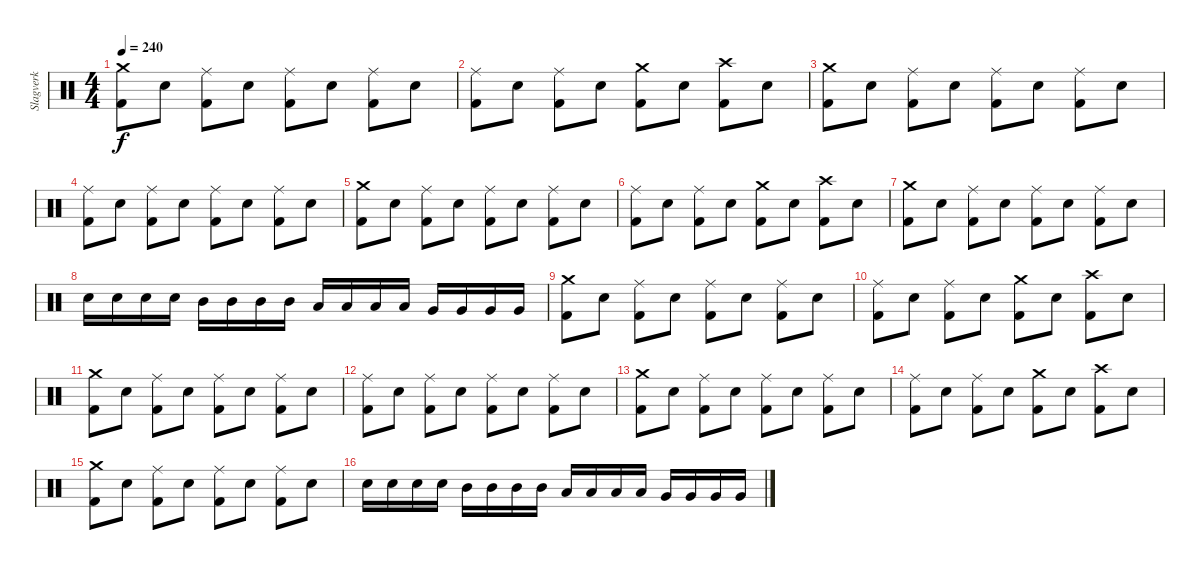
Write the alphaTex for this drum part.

\track ("Slagverk" "Slagverk") {instrument percussion}
\staff {score}
\articulation defaults
\ts (4 4)
\tempo 240
\clef neutral
\ks c
("Crash medium (hit)" "Kick (hit) 2").8{dy f} "Electric Snare (hit)".8 ("Ride (middle)" "Kick (hit) 2").8 "Electric Snare (hit)".8 ("Ride (middle)" "Kick (hit) 2").8 "Electric Snare (hit)".8 ("Ride (middle)" "Kick (hit) 2").8 "Electric Snare (hit)".8 |
("Ride (middle)" "Kick (hit) 2").8 "Electric Snare (hit)".8 ("Ride (middle)" "Kick (hit) 2").8 "Electric Snare (hit)".8 ("Crash medium (hit)" "Kick (hit) 2").8 "Electric Snare (hit)".8 ("Crash high (hit)" "Kick (hit) 2").8 "Electric Snare (hit)".8 |
("Crash medium (hit)" "Kick (hit) 2").8 "Electric Snare (hit)".8 ("Ride (middle)" "Kick (hit) 2").8 "Electric Snare (hit)".8 ("Ride (middle)" "Kick (hit) 2").8 "Electric Snare (hit)".8 ("Ride (middle)" "Kick (hit) 2").8 "Electric Snare (hit)".8 |
("Ride (middle)" "Kick (hit) 2").8 "Electric Snare (hit)".8 ("Ride (middle)" "Kick (hit) 2").8 "Electric Snare (hit)".8 ("Ride (middle)" "Kick (hit) 2").8 "Electric Snare (hit)".8 ("Ride (middle)" "Kick (hit) 2").8 "Electric Snare (hit)".8 |
("Crash medium (hit)" "Kick (hit) 2").8 "Electric Snare (hit)".8 ("Ride (middle)" "Kick (hit) 2").8 "Electric Snare (hit)".8 ("Ride (middle)" "Kick (hit) 2").8 "Electric Snare (hit)".8 ("Ride (middle)" "Kick (hit) 2").8 "Electric Snare (hit)".8 |
("Ride (middle)" "Kick (hit) 2").8 "Electric Snare (hit)".8 ("Ride (middle)" "Kick (hit) 2").8 "Electric Snare (hit)".8 ("Crash medium (hit)" "Kick (hit) 2").8 "Electric Snare (hit)".8 ("Crash high (hit)" "Kick (hit) 2").8 "Electric Snare (hit)".8 |
("Crash medium (hit)" "Kick (hit) 2").8 "Electric Snare (hit)".8 ("Ride (middle)" "Kick (hit) 2").8 "Electric Snare (hit)".8 ("Ride (middle)" "Kick (hit) 2").8 "Electric Snare (hit)".8 ("Ride (middle)" "Kick (hit) 2").8 "Electric Snare (hit)".8 |
"Electric Snare (hit)".16 "Electric Snare (hit)".16 "Electric Snare (hit)".16 "Electric Snare (hit)".16 "Mid Tom (hit)".16 "Mid Tom (hit)".16 "Mid Tom (hit)".16 "Mid Tom (hit)".16 "Low Tom (hit)".16 "Low Tom (hit)".16 "Low Tom (hit)".16 "Low Tom (hit)".16 "Very Low Tom (hit)".16 "Very Low Tom (hit)".16 "Very Low Tom (hit)".16 "Very Low Tom (hit)".16 |
("Crash medium (hit)" "Kick (hit) 2").8 "Electric Snare (hit)".8 ("Ride (middle)" "Kick (hit) 2").8 "Electric Snare (hit)".8 ("Ride (middle)" "Kick (hit) 2").8 "Electric Snare (hit)".8 ("Ride (middle)" "Kick (hit) 2").8 "Electric Snare (hit)".8 |
("Ride (middle)" "Kick (hit) 2").8 "Electric Snare (hit)".8 ("Ride (middle)" "Kick (hit) 2").8 "Electric Snare (hit)".8 ("Crash medium (hit)" "Kick (hit) 2").8 "Electric Snare (hit)".8 ("Crash high (hit)" "Kick (hit) 2").8 "Electric Snare (hit)".8 |
("Crash medium (hit)" "Kick (hit) 2").8 "Electric Snare (hit)".8 ("Ride (middle)" "Kick (hit) 2").8 "Electric Snare (hit)".8 ("Ride (middle)" "Kick (hit) 2").8 "Electric Snare (hit)".8 ("Ride (middle)" "Kick (hit) 2").8 "Electric Snare (hit)".8 |
("Ride (middle)" "Kick (hit) 2").8 "Electric Snare (hit)".8 ("Ride (middle)" "Kick (hit) 2").8 "Electric Snare (hit)".8 ("Ride (middle)" "Kick (hit) 2").8 "Electric Snare (hit)".8 ("Ride (middle)" "Kick (hit) 2").8 "Electric Snare (hit)".8 |
("Crash medium (hit)" "Kick (hit) 2").8 "Electric Snare (hit)".8 ("Ride (middle)" "Kick (hit) 2").8 "Electric Snare (hit)".8 ("Ride (middle)" "Kick (hit) 2").8 "Electric Snare (hit)".8 ("Ride (middle)" "Kick (hit) 2").8 "Electric Snare (hit)".8 |
("Ride (middle)" "Kick (hit) 2").8 "Electric Snare (hit)".8 ("Ride (middle)" "Kick (hit) 2").8 "Electric Snare (hit)".8 ("Crash medium (hit)" "Kick (hit) 2").8 "Electric Snare (hit)".8 ("Crash high (hit)" "Kick (hit) 2").8 "Electric Snare (hit)".8 |
("Crash medium (hit)" "Kick (hit) 2").8 "Electric Snare (hit)".8 ("Ride (middle)" "Kick (hit) 2").8 "Electric Snare (hit)".8 ("Ride (middle)" "Kick (hit) 2").8 "Electric Snare (hit)".8 ("Ride (middle)" "Kick (hit) 2").8 "Electric Snare (hit)".8 |
"Electric Snare (hit)".16 "Electric Snare (hit)".16 "Electric Snare (hit)".16 "Electric Snare (hit)".16 "Mid Tom (hit)".16 "Mid Tom (hit)".16 "Mid Tom (hit)".16 "Mid Tom (hit)".16 "Low Tom (hit)".16 "Low Tom (hit)".16 "Low Tom (hit)".16 "Low Tom (hit)".16 "Very Low Tom (hit)".16 "Very Low Tom (hit)".16 "Very Low Tom (hit)".16 "Very Low Tom (hit)".16
